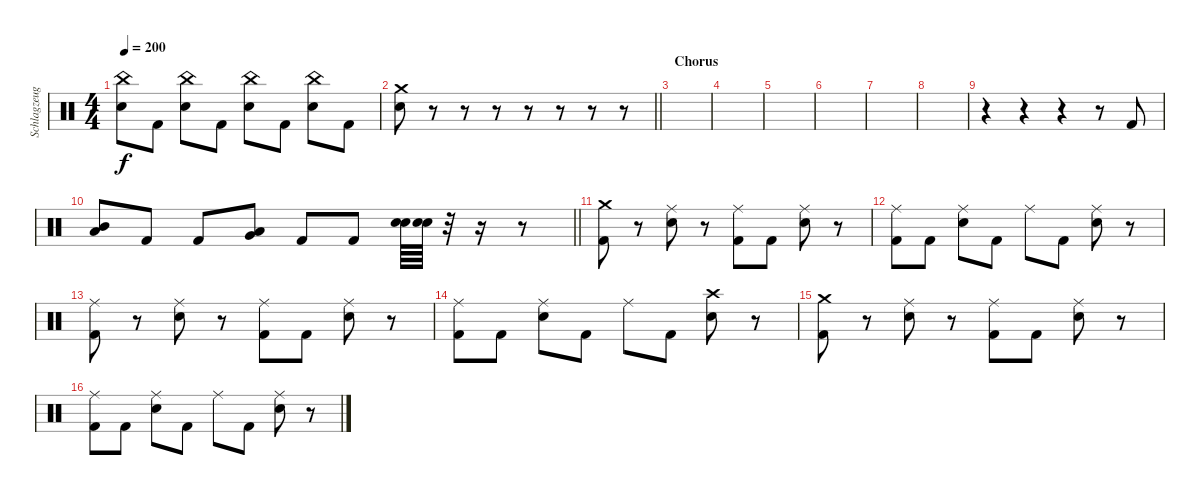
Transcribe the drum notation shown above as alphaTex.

\track ("Schlagzeug" "Schlagzeug") {instrument percussion}
\staff {score}
\articulation defaults
\ts (4 4)
\tempo 200
\clef neutral
\ks c
("China (hit)" "Electric Snare (hit)").8{dy f} "Kick (hit) 2".8 ("China (hit)" "Electric Snare (hit)").8 "Kick (hit) 2".8 ("China (hit)" "Electric Snare (hit)").8 "Kick (hit) 2".8 ("China (hit)" "Electric Snare (hit)").8 "Kick (hit) 2".8 |
\barLineRight lightlight
("Crash medium (hit)" "Electric Snare (hit)").8 r.8 r.8 r.8 r.8 r.8 r.8 r.8 |
\section ("" "Chorus")
|
|
|
|
|
|
r.4 r.4 r.4 r.8 "Kick (hit) 2".8 |
\barLineRight lightlight
("Mid Tom (hit)" "Low Tom (hit)").8 "Kick (hit) 2".8 "Kick (hit) 2".8 ("Low Tom (hit)" "Very Low Tom (hit)").8 "Kick (hit) 2".8 "Kick (hit) 2".8 ("Electric Snare (hit)" "Electric Snare (hit)").64 ("Electric Snare (hit)" "Electric Snare (hit)").64 r.32 r.16 r.8 |
("Crash medium (hit)" "Kick (hit) 2").8 r.8 ("Ride (middle)" "Electric Snare (hit)").8 r.8 ("Ride (middle)" "Kick (hit) 2").8 "Kick (hit) 2".8 ("Ride (middle)" "Electric Snare (hit)").8 r.8 |
("Ride (middle)" "Kick (hit) 2").8 "Kick (hit) 2".8 ("Ride (middle)" "Electric Snare (hit)").8 "Kick (hit) 2".8 "Ride (middle)".8 "Kick (hit) 2".8 ("Ride (middle)" "Electric Snare (hit)").8 r.8 |
("Ride (middle)" "Kick (hit) 2").8 r.8 ("Ride (middle)" "Electric Snare (hit)").8 r.8 ("Ride (middle)" "Kick (hit) 2").8 "Kick (hit) 2".8 ("Ride (middle)" "Electric Snare (hit)").8 r.8 |
("Ride (middle)" "Kick (hit) 2").8 "Kick (hit) 2".8 ("Ride (middle)" "Electric Snare (hit)").8 "Kick (hit) 2".8 "Ride (middle)".8 "Kick (hit) 2".8 ("Crash high (hit)" "Electric Snare (hit)").8 r.8 |
("Crash medium (hit)" "Kick (hit) 2").8 r.8 ("Ride (middle)" "Electric Snare (hit)").8 r.8 ("Ride (middle)" "Kick (hit) 2").8 "Kick (hit) 2".8 ("Ride (middle)" "Electric Snare (hit)").8 r.8 |
("Ride (middle)" "Kick (hit) 2").8 "Kick (hit) 2".8 ("Ride (middle)" "Electric Snare (hit)").8 "Kick (hit) 2".8 "Ride (middle)".8 "Kick (hit) 2".8 ("Ride (middle)" "Electric Snare (hit)").8 r.8
